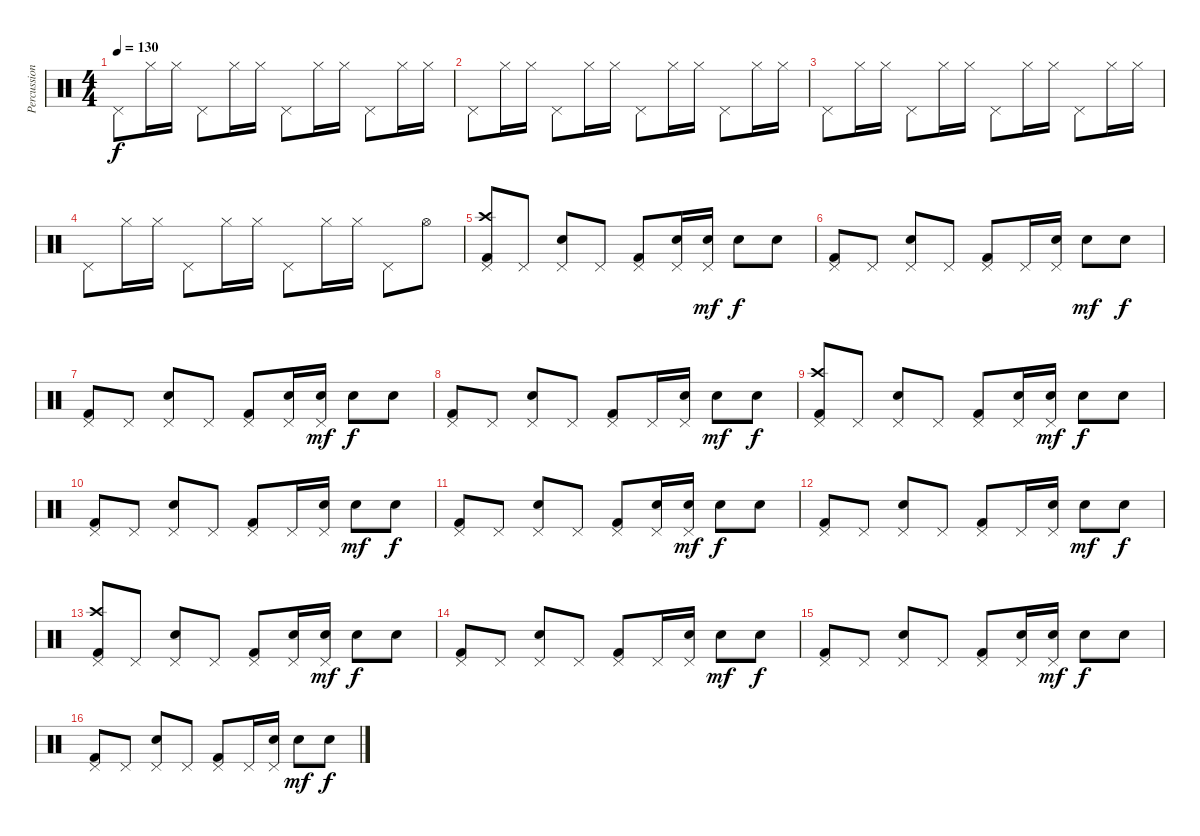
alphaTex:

\track ("Percussions" "Percussion") {instrument percussion}
\staff {score}
\articulation defaults
\ts (4 4)
\tempo 130
\clef neutral
\ks c "Pedal Hi-Hat (hit)".8{dy f} "Hi-Hat (closed)".16 "Hi-Hat (closed)".16 "Pedal Hi-Hat (hit)".8 "Hi-Hat (closed)".16 "Hi-Hat (closed)".16 "Pedal Hi-Hat (hit)".8 "Hi-Hat (closed)".16 "Hi-Hat (closed)".16 "Pedal Hi-Hat (hit)".8 "Hi-Hat (closed)".16 "Hi-Hat (closed)".16
|
"Pedal Hi-Hat (hit)".8 "Hi-Hat (closed)".16 "Hi-Hat (closed)".16 "Pedal Hi-Hat (hit)".8 "Hi-Hat (closed)".16 "Hi-Hat (closed)".16 "Pedal Hi-Hat (hit)".8 "Hi-Hat (closed)".16 "Hi-Hat (closed)".16 "Pedal Hi-Hat (hit)".8 "Hi-Hat (closed)".16 "Hi-Hat (closed)".16 |
"Pedal Hi-Hat (hit)".8 "Hi-Hat (closed)".16 "Hi-Hat (closed)".16 "Pedal Hi-Hat (hit)".8 "Hi-Hat (closed)".16 "Hi-Hat (closed)".16 "Pedal Hi-Hat (hit)".8 "Hi-Hat (closed)".16 "Hi-Hat (closed)".16 "Pedal Hi-Hat (hit)".8 "Hi-Hat (closed)".16 "Hi-Hat (closed)".16 |
"Pedal Hi-Hat (hit)".8 "Hi-Hat (closed)".16 "Hi-Hat (closed)".16 "Pedal Hi-Hat (hit)".8 "Hi-Hat (closed)".16 "Hi-Hat (closed)".16 "Pedal Hi-Hat (hit)".8 "Hi-Hat (closed)".16 "Hi-Hat (closed)".16 "Pedal Hi-Hat (hit)".8 "Hi-Hat (open)".8 |
("Pedal Hi-Hat (hit)" "Crash high (hit)" "Kick (hit) 2").8 "Pedal Hi-Hat (hit)".8 ("Pedal Hi-Hat (hit)" "Electric Snare (hit)").8 "Pedal Hi-Hat (hit)".8 ("Pedal Hi-Hat (hit)" "Kick (hit) 2").8 ("Pedal Hi-Hat (hit)" "Electric Snare (hit)").16 ("Pedal Hi-Hat (hit)" "Electric Snare (hit)").16{dy mf} "Electric Snare (hit)".8{dy f} "Electric Snare (hit)".8 |
("Pedal Hi-Hat (hit)" "Kick (hit) 2").8 "Pedal Hi-Hat (hit)".8 ("Pedal Hi-Hat (hit)" "Electric Snare (hit)").8 "Pedal Hi-Hat (hit)".8 ("Pedal Hi-Hat (hit)" "Kick (hit) 2").8 "Pedal Hi-Hat (hit)".16 ("Pedal Hi-Hat (hit)" "Electric Snare (hit)").16 "Electric Snare (hit)".8{dy mf} "Electric Snare (hit)".8{dy f} |
("Pedal Hi-Hat (hit)" "Kick (hit) 2").8 "Pedal Hi-Hat (hit)".8 ("Pedal Hi-Hat (hit)" "Electric Snare (hit)").8 "Pedal Hi-Hat (hit)".8 ("Pedal Hi-Hat (hit)" "Kick (hit) 2").8 ("Pedal Hi-Hat (hit)" "Electric Snare (hit)").16 ("Pedal Hi-Hat (hit)" "Electric Snare (hit)").16{dy mf} "Electric Snare (hit)".8{dy f} "Electric Snare (hit)".8 |
("Pedal Hi-Hat (hit)" "Kick (hit) 2").8 "Pedal Hi-Hat (hit)".8 ("Pedal Hi-Hat (hit)" "Electric Snare (hit)").8 "Pedal Hi-Hat (hit)".8 ("Pedal Hi-Hat (hit)" "Kick (hit) 2").8 "Pedal Hi-Hat (hit)".16 ("Pedal Hi-Hat (hit)" "Electric Snare (hit)").16 "Electric Snare (hit)".8{dy mf} "Electric Snare (hit)".8{dy f} |
("Pedal Hi-Hat (hit)" "Crash high (hit)" "Kick (hit) 2").8 "Pedal Hi-Hat (hit)".8 ("Pedal Hi-Hat (hit)" "Electric Snare (hit)").8 "Pedal Hi-Hat (hit)".8 ("Pedal Hi-Hat (hit)" "Kick (hit) 2").8 ("Pedal Hi-Hat (hit)" "Electric Snare (hit)").16 ("Pedal Hi-Hat (hit)" "Electric Snare (hit)").16{dy mf} "Electric Snare (hit)".8{dy f} "Electric Snare (hit)".8 |
("Pedal Hi-Hat (hit)" "Kick (hit) 2").8 "Pedal Hi-Hat (hit)".8 ("Pedal Hi-Hat (hit)" "Electric Snare (hit)").8 "Pedal Hi-Hat (hit)".8 ("Pedal Hi-Hat (hit)" "Kick (hit) 2").8 "Pedal Hi-Hat (hit)".16 ("Pedal Hi-Hat (hit)" "Electric Snare (hit)").16 "Electric Snare (hit)".8{dy mf} "Electric Snare (hit)".8{dy f} |
("Pedal Hi-Hat (hit)" "Kick (hit) 2").8 "Pedal Hi-Hat (hit)".8 ("Pedal Hi-Hat (hit)" "Electric Snare (hit)").8 "Pedal Hi-Hat (hit)".8 ("Pedal Hi-Hat (hit)" "Kick (hit) 2").8 ("Pedal Hi-Hat (hit)" "Electric Snare (hit)").16 ("Pedal Hi-Hat (hit)" "Electric Snare (hit)").16{dy mf} "Electric Snare (hit)".8{dy f} "Electric Snare (hit)".8 |
("Pedal Hi-Hat (hit)" "Kick (hit) 2").8 "Pedal Hi-Hat (hit)".8 ("Pedal Hi-Hat (hit)" "Electric Snare (hit)").8 "Pedal Hi-Hat (hit)".8 ("Pedal Hi-Hat (hit)" "Kick (hit) 2").8 "Pedal Hi-Hat (hit)".16 ("Pedal Hi-Hat (hit)" "Electric Snare (hit)").16 "Electric Snare (hit)".8{dy mf} "Electric Snare (hit)".8{dy f} |
("Pedal Hi-Hat (hit)" "Crash high (hit)" "Kick (hit) 2").8 "Pedal Hi-Hat (hit)".8 ("Pedal Hi-Hat (hit)" "Electric Snare (hit)").8 "Pedal Hi-Hat (hit)".8 ("Pedal Hi-Hat (hit)" "Kick (hit) 2").8 ("Pedal Hi-Hat (hit)" "Electric Snare (hit)").16 ("Pedal Hi-Hat (hit)" "Electric Snare (hit)").16{dy mf} "Electric Snare (hit)".8{dy f} "Electric Snare (hit)".8 |
("Pedal Hi-Hat (hit)" "Kick (hit) 2").8 "Pedal Hi-Hat (hit)".8 ("Pedal Hi-Hat (hit)" "Electric Snare (hit)").8 "Pedal Hi-Hat (hit)".8 ("Pedal Hi-Hat (hit)" "Kick (hit) 2").8 "Pedal Hi-Hat (hit)".16 ("Pedal Hi-Hat (hit)" "Electric Snare (hit)").16 "Electric Snare (hit)".8{dy mf} "Electric Snare (hit)".8{dy f} |
("Pedal Hi-Hat (hit)" "Kick (hit) 2").8 "Pedal Hi-Hat (hit)".8 ("Pedal Hi-Hat (hit)" "Electric Snare (hit)").8 "Pedal Hi-Hat (hit)".8 ("Pedal Hi-Hat (hit)" "Kick (hit) 2").8 ("Pedal Hi-Hat (hit)" "Electric Snare (hit)").16 ("Pedal Hi-Hat (hit)" "Electric Snare (hit)").16{dy mf} "Electric Snare (hit)".8{dy f} "Electric Snare (hit)".8 |
("Pedal Hi-Hat (hit)" "Kick (hit) 2").8 "Pedal Hi-Hat (hit)".8 ("Pedal Hi-Hat (hit)" "Electric Snare (hit)").8 "Pedal Hi-Hat (hit)".8 ("Pedal Hi-Hat (hit)" "Kick (hit) 2").8 "Pedal Hi-Hat (hit)".16 ("Pedal Hi-Hat (hit)" "Electric Snare (hit)").16 "Electric Snare (hit)".8{dy mf} "Electric Snare (hit)".8{dy f}
